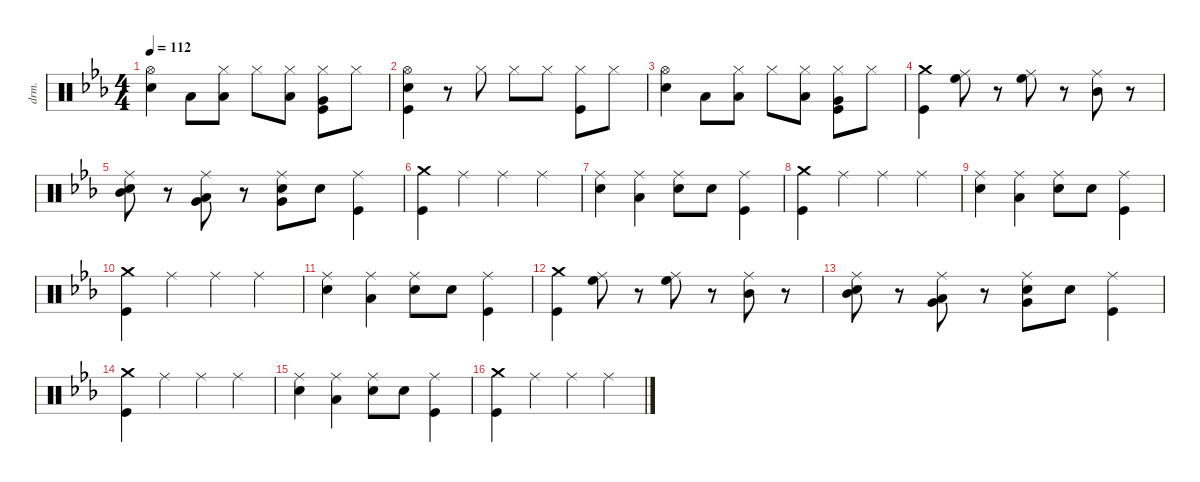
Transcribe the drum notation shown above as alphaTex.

\defaultSystemsLayout 4
\hideDynamics
\bracketExtendMode nobrackets
\otherSystemsTrackNameOrientation horizontal
\track ("Percussion" "drm.") {instrument percussion}
\staff {score}
\articulation defaults
\ts (4 4)
\tempo 112
\clef neutral
\ks cminor
("Snare (hit) 2"{acc forcenatural} "Hi-Hat (open)"{acc forcenatural}).4{dy f beam Down} "Low Tom (hit)"{acc forcenatural}.8{beam Down} ("Low Tom (hit)"{acc forcenatural} "Hi-Hat (closed)"{acc forcenatural}).8{beam Down} "Hi-Hat (closed)"{acc forcenatural}.8{beam Down} ("Low Tom (hit)"{acc forcenatural} "Hi-Hat (closed)"{acc forcenatural}).8{beam Down} ("Very Low Tom (hit)"{acc forcenatural} "Kick (hit)"{acc forcenatural} "Hi-Hat (closed)"{acc forcenatural}).8{beam Down} "Hi-Hat (closed)"{acc forcenatural}.8{beam Down} |
("Hi-Hat (open)"{acc forcenatural} "Kick (hit)"{acc forcenatural} "Snare (hit) 2"{acc forcenatural}).4{beam Down} r.8{beam Down} "Hi-Hat (closed)"{acc forcenatural}.8{beam Down} "Hi-Hat (closed)"{acc forcenatural}.8{beam Down} "Hi-Hat (closed)"{acc forcenatural}.8{beam Down} ("Kick (hit)"{acc forcenatural} "Hi-Hat (closed)"{acc forcenatural}).8{beam Down} "Hi-Hat (closed)"{acc forcenatural}.8{beam Down} |
("Snare (hit) 2"{acc forcenatural} "Hi-Hat (open)"{acc forcenatural}).4{beam Down} "Low Tom (hit)"{acc forcenatural}.8{beam Down} ("Low Tom (hit)"{acc forcenatural} "Hi-Hat (closed)"{acc forcenatural}).8{beam Down} "Hi-Hat (closed)"{acc forcenatural}.8{beam Down} ("Low Tom (hit)"{acc forcenatural} "Hi-Hat (closed)"{acc forcenatural}).8{beam Down} ("Very Low Tom (hit)"{acc forcenatural} "Kick (hit)"{acc forcenatural} "Hi-Hat (closed)"{acc forcenatural}).8{beam Down} "Hi-Hat (closed)"{acc forcenatural}.8{beam Down} |
("Crash medium (hit)"{acc forcenatural} "Kick (hit)"{acc forcenatural}).4{beam Down} ("High Floor Tom (hit)"{acc forcenatural} "Ride (middle)"{acc forcenatural}).8{beam Down} r.8{beam Down} ("High Floor Tom (hit)"{acc forcenatural} "Ride (middle)"{acc forcenatural}).8{beam Down} r.8{beam Down} ("Mid Tom (hit)"{acc forcenatural} "Ride (middle)"{acc forcenatural}).8{beam Down} r.8{beam Down} |
("Mid Tom (hit)"{acc forcenatural} "Snare (hit) 2"{acc forcenatural} "Ride (middle)"{acc forcenatural}).8{beam Down} r.8{beam Down} ("Very Low Tom (hit)"{acc forcenatural} "Low Floor Tom (hit)"{acc forcenatural} "Ride (middle)"{acc forcenatural}).8{beam Down} r.8{beam Down} ("Very Low Tom (hit)"{acc forcenatural} "Snare (hit) 2"{acc forcenatural} "Ride (middle)"{acc forcenatural}).8{beam Down} "Snare (hit) 2"{acc forcenatural}.8{beam Down} ("Kick (hit)"{acc forcenatural} "Ride (middle)"{acc forcenatural}).4{beam Down} |
("Crash medium (hit)"{acc forcenatural} "Kick (hit)"{acc forcenatural}).4{beam Down} "Ride (middle)"{acc forcenatural}.4{beam Down} "Ride (middle)"{acc forcenatural}.4{beam Down} "Ride (middle)"{acc forcenatural}.4{beam Down} |
("Snare (hit) 2"{acc forcenatural} "Ride (middle)"{acc forcenatural}).4{beam Down} ("Low Floor Tom (hit)"{acc forcenatural} "Ride (middle)"{acc forcenatural}).4{beam Down} ("Snare (hit) 2"{acc forcenatural} "Ride (middle)"{acc forcenatural}).8{beam Down} "Snare (hit) 2"{acc forcenatural}.8{beam Down} ("Kick (hit)"{acc forcenatural} "Ride (middle)"{acc forcenatural}).4{beam Down} |
("Crash medium (hit)"{acc forcenatural} "Kick (hit)"{acc forcenatural}).4{beam Down} "Ride (middle)"{acc forcenatural}.4{beam Down} "Ride (middle)"{acc forcenatural}.4{beam Down} "Ride (middle)"{acc forcenatural}.4{beam Down} |
("Snare (hit) 2"{acc forcenatural} "Ride (middle)"{acc forcenatural}).4{beam Down} ("Low Floor Tom (hit)"{acc forcenatural} "Ride (middle)"{acc forcenatural}).4{beam Down} ("Snare (hit) 2"{acc forcenatural} "Ride (middle)"{acc forcenatural}).8{beam Down} "Snare (hit) 2"{acc forcenatural}.8{beam Down} ("Kick (hit)"{acc forcenatural} "Ride (middle)"{acc forcenatural}).4{beam Down} |
("Crash medium (hit)"{acc forcenatural} "Kick (hit)"{acc forcenatural}).4{beam Down} "Ride (middle)"{acc forcenatural}.4{beam Down} "Ride (middle)"{acc forcenatural}.4{beam Down} "Ride (middle)"{acc forcenatural}.4{beam Down} |
("Snare (hit) 2"{acc forcenatural} "Ride (middle)"{acc forcenatural}).4{beam Down} ("Low Floor Tom (hit)"{acc forcenatural} "Ride (middle)"{acc forcenatural}).4{beam Down} ("Snare (hit) 2"{acc forcenatural} "Ride (middle)"{acc forcenatural}).8{beam Down} "Snare (hit) 2"{acc forcenatural}.8{beam Down} ("Kick (hit)"{acc forcenatural} "Ride (middle)"{acc forcenatural}).4{beam Down} |
("Crash medium (hit)"{acc forcenatural} "Kick (hit)"{acc forcenatural}).4{beam Down} ("High Floor Tom (hit)"{acc forcenatural} "Ride (middle)"{acc forcenatural}).8{beam Down} r.8{beam Down} ("High Floor Tom (hit)"{acc forcenatural} "Ride (middle)"{acc forcenatural}).8{beam Down} r.8{beam Down} ("Mid Tom (hit)"{acc forcenatural} "Ride (middle)"{acc forcenatural}).8{beam Down} r.8{beam Down} |
("Mid Tom (hit)"{acc forcenatural} "Snare (hit) 2"{acc forcenatural} "Ride (middle)"{acc forcenatural}).8{beam Down} r.8{beam Down} ("Very Low Tom (hit)"{acc forcenatural} "Low Floor Tom (hit)"{acc forcenatural} "Ride (middle)"{acc forcenatural}).8{beam Down} r.8{beam Down} ("Very Low Tom (hit)"{acc forcenatural} "Snare (hit) 2"{acc forcenatural} "Ride (middle)"{acc forcenatural}).8{beam Down} "Snare (hit) 2"{acc forcenatural}.8{beam Down} ("Kick (hit)"{acc forcenatural} "Ride (middle)"{acc forcenatural}).4{beam Down} |
("Crash medium (hit)"{acc forcenatural} "Kick (hit)"{acc forcenatural}).4{beam Down} "Ride (middle)"{acc forcenatural}.4{beam Down} "Ride (middle)"{acc forcenatural}.4{beam Down} "Ride (middle)"{acc forcenatural}.4{beam Down} |
("Snare (hit) 2"{acc forcenatural} "Ride (middle)"{acc forcenatural}).4{beam Down} ("Low Floor Tom (hit)"{acc forcenatural} "Ride (middle)"{acc forcenatural}).4{beam Down} ("Snare (hit) 2"{acc forcenatural} "Ride (middle)"{acc forcenatural}).8{beam Down} "Snare (hit) 2"{acc forcenatural}.8{beam Down} ("Kick (hit)"{acc forcenatural} "Ride (middle)"{acc forcenatural}).4{beam Down} |
("Crash medium (hit)"{acc forcenatural} "Kick (hit)"{acc forcenatural}).4{beam Down} "Ride (middle)"{acc forcenatural}.4{beam Down} "Ride (middle)"{acc forcenatural}.4{beam Down} "Ride (middle)"{acc forcenatural}.4{beam Down}
